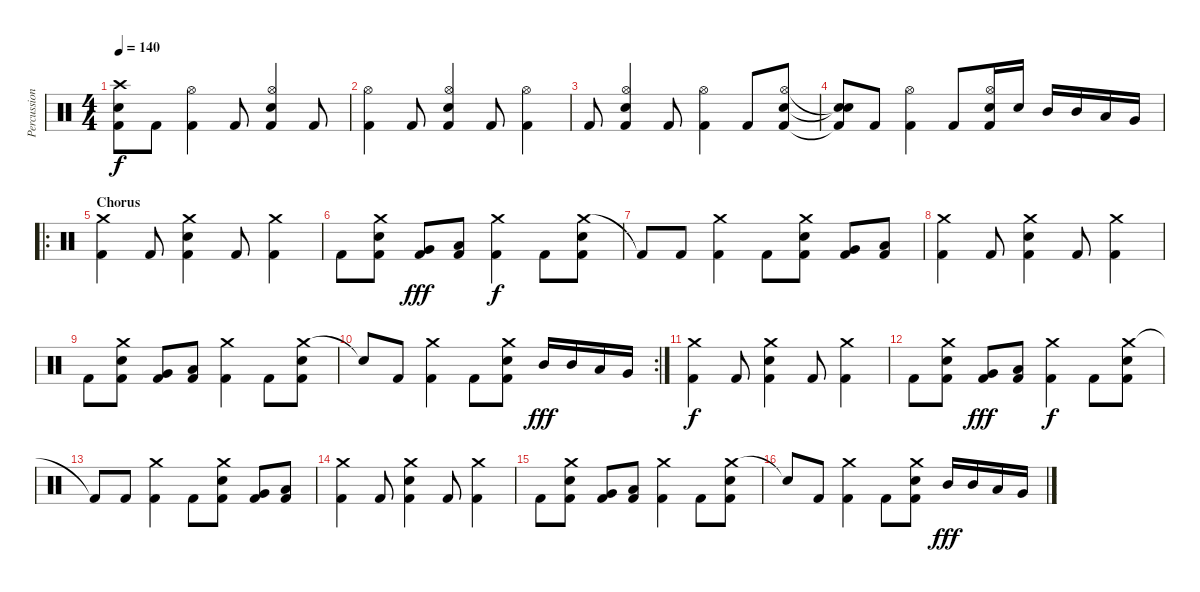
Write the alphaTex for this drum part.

\track ("Percussion" "Percussion") {instrument percussion}
\staff {score}
\articulation defaults
\ts (4 4)
\tempo 140
\clef neutral
\ks c
("Crash high (hit)"{t} "Kick (hit) 2"{t} "Snare (hit)"{t}).8{dy f} "Kick (hit) 2".8 ("Hi-Hat (open)" "Kick (hit) 2").4 "Kick (hit) 2".8 ("Electric Snare (hit)" "Hi-Hat (open)" "Kick (hit) 2").4 "Kick (hit) 2".8 |
("Hi-Hat (open)" "Kick (hit) 2").4 "Kick (hit) 2".8 ("Hi-Hat (open)" "Electric Snare (hit)" "Kick (hit) 2").4 "Kick (hit) 2".8 ("Hi-Hat (open)" "Kick (hit) 2").4 |
"Kick (hit) 2".8 ("Hi-Hat (open)" "Electric Snare (hit)" "Kick (hit) 2").4 "Kick (hit) 2".8 ("Hi-Hat (open)" "Kick (hit) 2").4 "Kick (hit) 2".8 ("Electric Snare (hit)" "Hi-Hat (open)" "Kick (hit) 2").8 |
("Snare (hit)"{t} "Snare (hit)"{t} "Kick (hit) 2"{t}).8 "Kick (hit) 2".8 ("Hi-Hat (open)" "Kick (hit) 2").4 "Kick (hit) 2".8 ("Hi-Hat (open)" "Electric Snare (hit)" "Kick (hit) 2").16 "Electric Snare (hit)".16 "Mid Tom (hit)".16 "Mid Tom (hit)".16 "Low Tom (hit)".16 "Very Low Tom (hit)".16 |
\ro
\section ("" "Chorus")
("Crash medium (hit)" "Kick (hit) 2").4 "Kick (hit) 2".8 ("Crash medium (hit)" "Electric Snare (hit)" "Kick (hit) 2").4 "Kick (hit) 2".8 ("Crash medium (hit)" "Kick (hit) 2").4 |
"Kick (hit) 2".8 ("Crash medium (hit)" "Electric Snare (hit)" "Kick (hit) 2").8 ("Very Low Tom (hit)" "Kick (hit) 2").8{dy fff} ("Low Floor Tom (hit)" "Kick (hit) 2").8 ("Crash medium (hit)" "Kick (hit) 2").4{dy f} "Kick (hit) 2".8 ("Crash medium (hit)" "Electric Snare (hit)" "Kick (hit) 2").8 |
"Kick (hit) 2"{t}.8 "Kick (hit) 2".8 ("Crash medium (hit)" "Kick (hit) 2").4 "Kick (hit) 2".8 ("Crash medium (hit)" "Electric Snare (hit)" "Kick (hit) 2").8 ("Very Low Tom (hit)" "Kick (hit) 2").8 ("Low Floor Tom (hit)" "Kick (hit) 2").8 |
("Crash medium (hit)" "Kick (hit) 2").4 "Kick (hit) 2".8 ("Crash medium (hit)" "Electric Snare (hit)" "Kick (hit) 2").4 "Kick (hit) 2".8 ("Crash medium (hit)" "Kick (hit) 2").4 |
"Kick (hit) 2".8 ("Crash medium (hit)" "Electric Snare (hit)" "Kick (hit) 2").8 ("Very Low Tom (hit)" "Kick (hit) 2").8 ("Low Floor Tom (hit)" "Kick (hit) 2").8 ("Crash medium (hit)" "Kick (hit) 2").4 "Kick (hit) 2".8 ("Crash medium (hit)" "Electric Snare (hit)" "Kick (hit) 2").8 |
\rc 2 "Snare (hit)"{t}.8 "Kick (hit) 2".8
("Crash medium (hit)" "Kick (hit) 2").4 "Kick (hit) 2".8 ("Crash medium (hit)" "Electric Snare (hit)" "Kick (hit) 2").8 "Mid Tom (hit)".16{dy fff} "Mid Tom (hit)".16 "Low Tom (hit)".16 "Very Low Tom (hit)".16 |
("Crash medium (hit)" "Kick (hit) 2").4{dy f} "Kick (hit) 2".8 ("Crash medium (hit)" "Electric Snare (hit)" "Kick (hit) 2").4 "Kick (hit) 2".8 ("Crash medium (hit)" "Kick (hit) 2").4 |
"Kick (hit) 2".8 ("Crash medium (hit)" "Electric Snare (hit)" "Kick (hit) 2").8 ("Very Low Tom (hit)" "Kick (hit) 2").8{dy fff} ("Low Floor Tom (hit)" "Kick (hit) 2").8 ("Crash medium (hit)" "Kick (hit) 2").4{dy f} "Kick (hit) 2".8 ("Crash medium (hit)" "Electric Snare (hit)" "Kick (hit) 2").8 |
"Kick (hit) 2"{t}.8 "Kick (hit) 2".8 ("Crash medium (hit)" "Kick (hit) 2").4 "Kick (hit) 2".8 ("Crash medium (hit)" "Electric Snare (hit)" "Kick (hit) 2").8 ("Very Low Tom (hit)" "Kick (hit) 2").8 ("Low Floor Tom (hit)" "Kick (hit) 2").8 |
("Crash medium (hit)" "Kick (hit) 2").4 "Kick (hit) 2".8 ("Crash medium (hit)" "Electric Snare (hit)" "Kick (hit) 2").4 "Kick (hit) 2".8 ("Crash medium (hit)" "Kick (hit) 2").4 |
"Kick (hit) 2".8 ("Crash medium (hit)" "Electric Snare (hit)" "Kick (hit) 2").8 ("Very Low Tom (hit)" "Kick (hit) 2").8 ("Low Floor Tom (hit)" "Kick (hit) 2").8 ("Crash medium (hit)" "Kick (hit) 2").4 "Kick (hit) 2".8 ("Crash medium (hit)" "Electric Snare (hit)" "Kick (hit) 2").8 |
"Snare (hit)"{t}.8 "Kick (hit) 2".8 ("Crash medium (hit)" "Kick (hit) 2").4 "Kick (hit) 2".8 ("Crash medium (hit)" "Electric Snare (hit)" "Kick (hit) 2").8 "Mid Tom (hit)".16{dy fff} "Mid Tom (hit)".16 "Low Tom (hit)".16 "Very Low Tom (hit)".16
